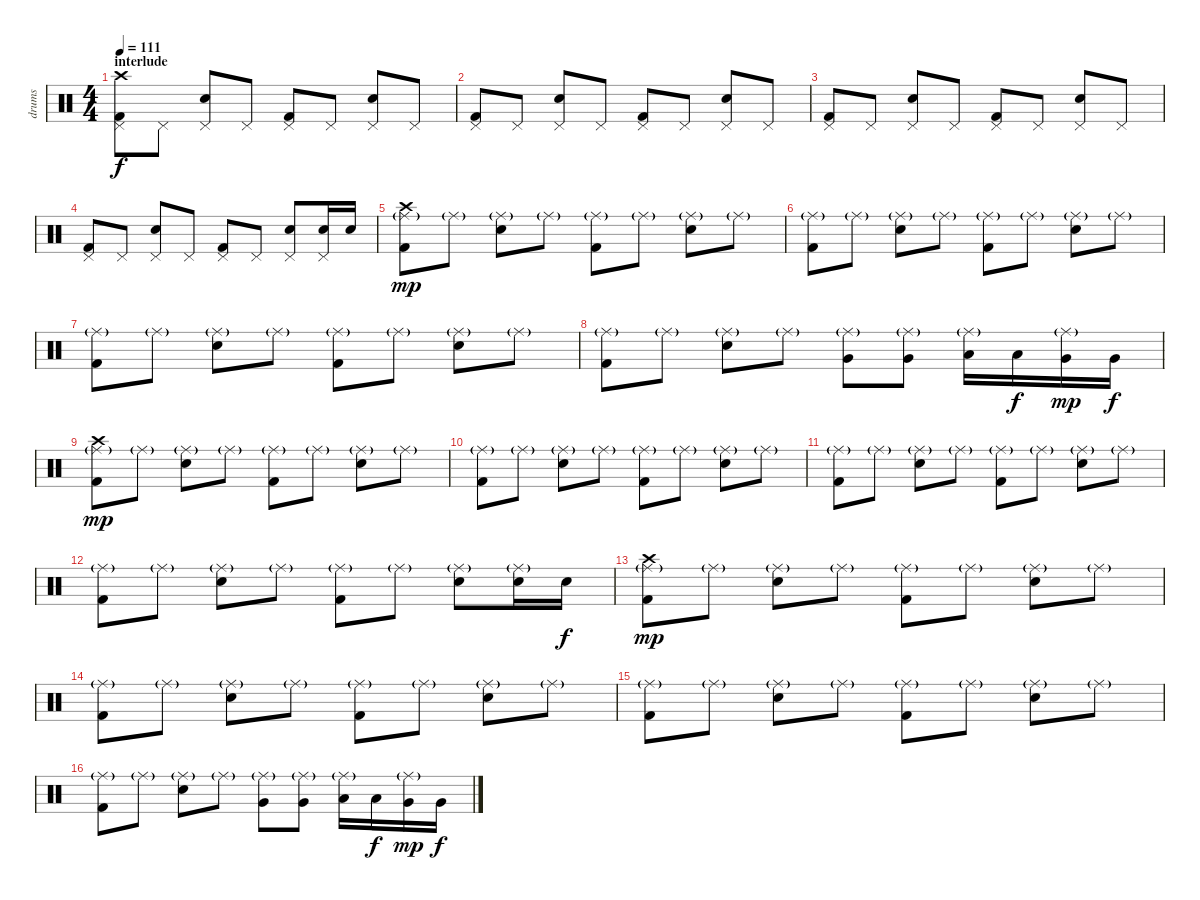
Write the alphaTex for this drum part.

\track ("drums" "drums") {instrument percussion}
\staff {score}
\articulation defaults
\ts (4 4)
\section ("" "interlude")
\tempo 111
\clef neutral
\ks c
("Kick (hit) 2" "Pedal Hi-Hat (hit)" "Crash high (hit)").8{dy f} "Pedal Hi-Hat (hit)".8 ("Electric Snare (hit)" "Pedal Hi-Hat (hit)").8 "Pedal Hi-Hat (hit)".8 ("Kick (hit) 2" "Pedal Hi-Hat (hit)").8 "Pedal Hi-Hat (hit)".8 ("Electric Snare (hit)" "Pedal Hi-Hat (hit)").8 "Pedal Hi-Hat (hit)".8 |
("Kick (hit) 2" "Pedal Hi-Hat (hit)").8 "Pedal Hi-Hat (hit)".8 ("Electric Snare (hit)" "Pedal Hi-Hat (hit)").8 "Pedal Hi-Hat (hit)".8 ("Kick (hit) 2" "Pedal Hi-Hat (hit)").8 "Pedal Hi-Hat (hit)".8 ("Electric Snare (hit)" "Pedal Hi-Hat (hit)").8 "Pedal Hi-Hat (hit)".8 |
("Kick (hit) 2" "Pedal Hi-Hat (hit)").8 "Pedal Hi-Hat (hit)".8 ("Electric Snare (hit)" "Pedal Hi-Hat (hit)").8 "Pedal Hi-Hat (hit)".8 ("Kick (hit) 2" "Pedal Hi-Hat (hit)").8 "Pedal Hi-Hat (hit)".8 ("Electric Snare (hit)" "Pedal Hi-Hat (hit)").8 "Pedal Hi-Hat (hit)".8 |
("Kick (hit) 2" "Pedal Hi-Hat (hit)").8 "Pedal Hi-Hat (hit)".8 ("Electric Snare (hit)" "Pedal Hi-Hat (hit)").8 "Pedal Hi-Hat (hit)".8 ("Kick (hit) 2" "Pedal Hi-Hat (hit)").8 "Pedal Hi-Hat (hit)".8 ("Electric Snare (hit)" "Pedal Hi-Hat (hit)").8 ("Electric Snare (hit)" "Pedal Hi-Hat (hit)").16 "Electric Snare (hit)".16 |
("Kick (hit) 2" "Ride (middle)"{g} "Crash high (hit)").8{dy mp} "Ride (middle)"{g}.8 ("Electric Snare (hit)" "Ride (middle)"{g}).8 "Ride (middle)"{g}.8 ("Kick (hit) 2" "Ride (middle)"{g}).8 "Ride (middle)"{g}.8 ("Electric Snare (hit)" "Ride (middle)"{g}).8 "Ride (middle)"{g}.8 |
("Kick (hit) 2" "Ride (middle)"{g}).8 "Ride (middle)"{g}.8 ("Electric Snare (hit)" "Ride (middle)"{g}).8 "Ride (middle)"{g}.8 ("Kick (hit) 2" "Ride (middle)"{g}).8 "Ride (middle)"{g}.8 ("Electric Snare (hit)" "Ride (middle)"{g}).8 "Ride (middle)"{g}.8 |
("Kick (hit) 2" "Ride (middle)"{g}).8 "Ride (middle)"{g}.8 ("Electric Snare (hit)" "Ride (middle)"{g}).8 "Ride (middle)"{g}.8 ("Kick (hit) 2" "Ride (middle)"{g}).8 "Ride (middle)"{g}.8 ("Electric Snare (hit)" "Ride (middle)"{g}).8 "Ride (middle)"{g}.8 |
("Kick (hit) 2" "Ride (middle)"{g}).8 "Ride (middle)"{g}.8 ("Electric Snare (hit)" "Ride (middle)"{g}).8 "Ride (middle)"{g}.8 ("Very Low Tom (hit)" "Ride (middle)"{g}).8 ("Very Low Tom (hit)" "Ride (middle)"{g}).8 ("Low Floor Tom (hit)" "Ride (middle)"{g}).16 "Low Floor Tom (hit)".16{dy f} ("Very Low Tom (hit)" "Ride (middle)"{g}).16{dy mp} "Very Low Tom (hit)".16{dy f} |
("Kick (hit) 2" "Ride (middle)"{g} "Crash high (hit)").8{dy mp} "Ride (middle)"{g}.8 ("Electric Snare (hit)" "Ride (middle)"{g}).8 "Ride (middle)"{g}.8 ("Kick (hit) 2" "Ride (middle)"{g}).8 "Ride (middle)"{g}.8 ("Electric Snare (hit)" "Ride (middle)"{g}).8 "Ride (middle)"{g}.8 |
("Kick (hit) 2" "Ride (middle)"{g}).8 "Ride (middle)"{g}.8 ("Electric Snare (hit)" "Ride (middle)"{g}).8 "Ride (middle)"{g}.8 ("Kick (hit) 2" "Ride (middle)"{g}).8 "Ride (middle)"{g}.8 ("Electric Snare (hit)" "Ride (middle)"{g}).8 "Ride (middle)"{g}.8 |
("Kick (hit) 2" "Ride (middle)"{g}).8 "Ride (middle)"{g}.8 ("Electric Snare (hit)" "Ride (middle)"{g}).8 "Ride (middle)"{g}.8 ("Kick (hit) 2" "Ride (middle)"{g}).8 "Ride (middle)"{g}.8 ("Electric Snare (hit)" "Ride (middle)"{g}).8 "Ride (middle)"{g}.8 |
("Kick (hit) 2" "Ride (middle)"{g}).8 "Ride (middle)"{g}.8 ("Electric Snare (hit)" "Ride (middle)"{g}).8 "Ride (middle)"{g}.8 ("Kick (hit) 2" "Ride (middle)"{g}).8 "Ride (middle)"{g}.8 ("Electric Snare (hit)" "Ride (middle)"{g}).8 ("Electric Snare (hit)" "Ride (middle)"{g}).16 "Electric Snare (hit)".16{dy f} |
("Kick (hit) 2" "Ride (middle)"{g} "Crash high (hit)").8{dy mp} "Ride (middle)"{g}.8 ("Electric Snare (hit)" "Ride (middle)"{g}).8 "Ride (middle)"{g}.8 ("Kick (hit) 2" "Ride (middle)"{g}).8 "Ride (middle)"{g}.8 ("Electric Snare (hit)" "Ride (middle)"{g}).8 "Ride (middle)"{g}.8 |
("Kick (hit) 2" "Ride (middle)"{g}).8 "Ride (middle)"{g}.8 ("Electric Snare (hit)" "Ride (middle)"{g}).8 "Ride (middle)"{g}.8 ("Kick (hit) 2" "Ride (middle)"{g}).8 "Ride (middle)"{g}.8 ("Electric Snare (hit)" "Ride (middle)"{g}).8 "Ride (middle)"{g}.8 |
("Kick (hit) 2" "Ride (middle)"{g}).8 "Ride (middle)"{g}.8 ("Electric Snare (hit)" "Ride (middle)"{g}).8 "Ride (middle)"{g}.8 ("Kick (hit) 2" "Ride (middle)"{g}).8 "Ride (middle)"{g}.8 ("Electric Snare (hit)" "Ride (middle)"{g}).8 "Ride (middle)"{g}.8 |
("Kick (hit) 2" "Ride (middle)"{g}).8 "Ride (middle)"{g}.8 ("Electric Snare (hit)" "Ride (middle)"{g}).8 "Ride (middle)"{g}.8 ("Very Low Tom (hit)" "Ride (middle)"{g}).8 ("Very Low Tom (hit)" "Ride (middle)"{g}).8 ("Low Floor Tom (hit)" "Ride (middle)"{g}).16 "Low Floor Tom (hit)".16{dy f} ("Very Low Tom (hit)" "Ride (middle)"{g}).16{dy mp} "Very Low Tom (hit)".16{dy f}
